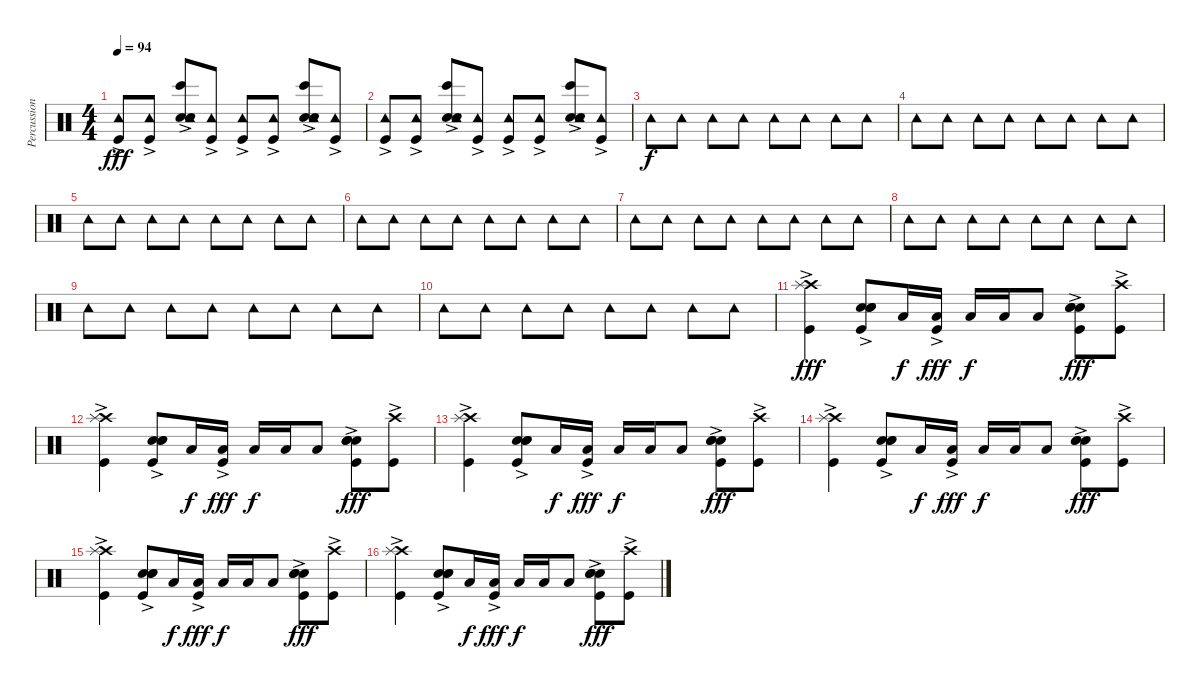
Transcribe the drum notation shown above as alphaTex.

\track ("Percussion" "Percussion") {instrument percussion}
\staff {score}
\articulation defaults
\ts (4 4)
\tempo 94
\clef neutral
\ks c
("Kick (hit)"{ac} "Tambourine (hit)").8{dy fff} ("Kick (hit)"{ac} "Tambourine (hit)").8 ("Bongo High (hit)"{ac} "Electric Snare (hit)" "Snare (hit) 2" "Tambourine (hit)").8 ("Kick (hit)"{ac} "Tambourine (hit)").8 ("Kick (hit)"{ac} "Tambourine (hit)").8 ("Kick (hit)"{ac} "Tambourine (hit)").8 ("Bongo High (hit)"{ac} "Snare (hit) 2" "Electric Snare (hit)" "Tambourine (hit)").8 ("Kick (hit)"{ac} "Tambourine (hit)").8 |
("Kick (hit)"{ac} "Tambourine (hit)").8 ("Kick (hit)"{ac} "Tambourine (hit)").8 ("Bongo High (hit)"{ac} "Electric Snare (hit)" "Snare (hit) 2" "Tambourine (hit)").8 ("Kick (hit)"{ac} "Tambourine (hit)").8 ("Kick (hit)"{ac} "Tambourine (hit)").8 ("Kick (hit)"{ac} "Tambourine (hit)").8 ("Bongo High (hit)"{ac} "Snare (hit) 2" "Electric Snare (hit)" "Tambourine (hit)").8 ("Kick (hit)"{ac} "Tambourine (hit)").8 |
"Tambourine (hit)".8{dy f} "Tambourine (hit)".8 "Tambourine (hit)".8 "Tambourine (hit)".8 "Tambourine (hit)".8 "Tambourine (hit)".8 "Tambourine (hit)".8 "Tambourine (hit)".8 |
"Tambourine (hit)".8 "Tambourine (hit)".8 "Tambourine (hit)".8 "Tambourine (hit)".8 "Tambourine (hit)".8 "Tambourine (hit)".8 "Tambourine (hit)".8 "Tambourine (hit)".8 |
"Tambourine (hit)".8 "Tambourine (hit)".8 "Tambourine (hit)".8 "Tambourine (hit)".8 "Tambourine (hit)".8 "Tambourine (hit)".8 "Tambourine (hit)".8 "Tambourine (hit)".8 |
"Tambourine (hit)".8 "Tambourine (hit)".8 "Tambourine (hit)".8 "Tambourine (hit)".8 "Tambourine (hit)".8 "Tambourine (hit)".8 "Tambourine (hit)".8 "Tambourine (hit)".8 |
"Tambourine (hit)".8 "Tambourine (hit)".8 "Tambourine (hit)".8 "Tambourine (hit)".8 "Tambourine (hit)".8 "Tambourine (hit)".8 "Tambourine (hit)".8 "Tambourine (hit)".8 |
"Tambourine (hit)".8 "Tambourine (hit)".8 "Tambourine (hit)".8 "Tambourine (hit)".8 "Tambourine (hit)".8 "Tambourine (hit)".8 "Tambourine (hit)".8 "Tambourine (hit)".8 |
"Tambourine (hit)".8 "Tambourine (hit)".8 "Tambourine (hit)".8 "Tambourine (hit)".8 "Tambourine (hit)".8 "Tambourine (hit)".8 "Tambourine (hit)".8 "Tambourine (hit)".8 |
"Tambourine (hit)".8 "Tambourine (hit)".8 "Tambourine (hit)".8 "Tambourine (hit)".8 "Tambourine (hit)".8 "Tambourine (hit)".8 "Tambourine (hit)".8 "Tambourine (hit)".8 |
("Crash high (hit)" "Splash (hit)" "Kick (hit)"{ac}).4{dy fff} ("Kick (hit)"{ac} "Snare (hit) 2" "Electric Snare (hit)" "Hand Clap (hit)"{ac}).8 "Low Floor Tom (hit)".16{dy f} ("Kick (hit)"{ac} "Low Floor Tom (hit)").16{dy fff} "Low Floor Tom (hit)".16{dy f} "Low Floor Tom (hit)".16 "Low Floor Tom (hit)".8 ("Hand Clap (hit)" "Electric Snare (hit)" "Snare (hit) 2" "Kick (hit)"{ac}).8{dy fff} ("Crash high (hit)" "Kick (hit)"{ac}).8 |
("Crash high (hit)" "Splash (hit)" "Kick (hit)"{ac}).4 ("Kick (hit)"{ac} "Snare (hit) 2" "Electric Snare (hit)" "Hand Clap (hit)"{ac}).8 "Low Floor Tom (hit)".16{dy f} ("Kick (hit)"{ac} "Low Floor Tom (hit)").16{dy fff} "Low Floor Tom (hit)".16{dy f} "Low Floor Tom (hit)".16 "Low Floor Tom (hit)".8 ("Hand Clap (hit)" "Electric Snare (hit)" "Snare (hit) 2" "Kick (hit)"{ac}).8{dy fff} ("Crash high (hit)" "Kick (hit)"{ac}).8 |
("Crash high (hit)" "Splash (hit)" "Kick (hit)"{ac}).4 ("Kick (hit)"{ac} "Snare (hit) 2" "Electric Snare (hit)" "Hand Clap (hit)"{ac}).8 "Low Floor Tom (hit)".16{dy f} ("Kick (hit)"{ac} "Low Floor Tom (hit)").16{dy fff} "Low Floor Tom (hit)".16{dy f} "Low Floor Tom (hit)".16 "Low Floor Tom (hit)".8 ("Hand Clap (hit)" "Electric Snare (hit)" "Snare (hit) 2" "Kick (hit)"{ac}).8{dy fff} ("Crash high (hit)" "Kick (hit)"{ac}).8 |
("Crash high (hit)" "Splash (hit)" "Kick (hit)"{ac}).4 ("Kick (hit)"{ac} "Snare (hit) 2" "Electric Snare (hit)" "Hand Clap (hit)"{ac}).8 "Low Floor Tom (hit)".16{dy f} ("Kick (hit)"{ac} "Low Floor Tom (hit)").16{dy fff} "Low Floor Tom (hit)".16{dy f} "Low Floor Tom (hit)".16 "Low Floor Tom (hit)".8 ("Hand Clap (hit)" "Electric Snare (hit)" "Snare (hit) 2" "Kick (hit)"{ac}).8{dy fff} ("Crash high (hit)" "Kick (hit)"{ac}).8 |
("Crash high (hit)" "Splash (hit)" "Kick (hit)"{ac}).4 ("Kick (hit)"{ac} "Snare (hit) 2" "Electric Snare (hit)" "Hand Clap (hit)"{ac}).8 "Low Floor Tom (hit)".16{dy f} ("Kick (hit)"{ac} "Low Floor Tom (hit)").16{dy fff} "Low Floor Tom (hit)".16{dy f} "Low Floor Tom (hit)".16 "Low Floor Tom (hit)".8 ("Hand Clap (hit)" "Electric Snare (hit)" "Snare (hit) 2" "Kick (hit)"{ac}).8{dy fff} ("Crash high (hit)" "Kick (hit)"{ac}).8 |
("Crash high (hit)" "Splash (hit)" "Kick (hit)"{ac}).4 ("Kick (hit)"{ac} "Snare (hit) 2" "Electric Snare (hit)" "Hand Clap (hit)"{ac}).8 "Low Floor Tom (hit)".16{dy f} ("Kick (hit)"{ac} "Low Floor Tom (hit)").16{dy fff} "Low Floor Tom (hit)".16{dy f} "Low Floor Tom (hit)".16 "Low Floor Tom (hit)".8 ("Hand Clap (hit)" "Electric Snare (hit)" "Snare (hit) 2" "Kick (hit)"{ac}).8{dy fff} ("Crash high (hit)" "Kick (hit)"{ac}).8
